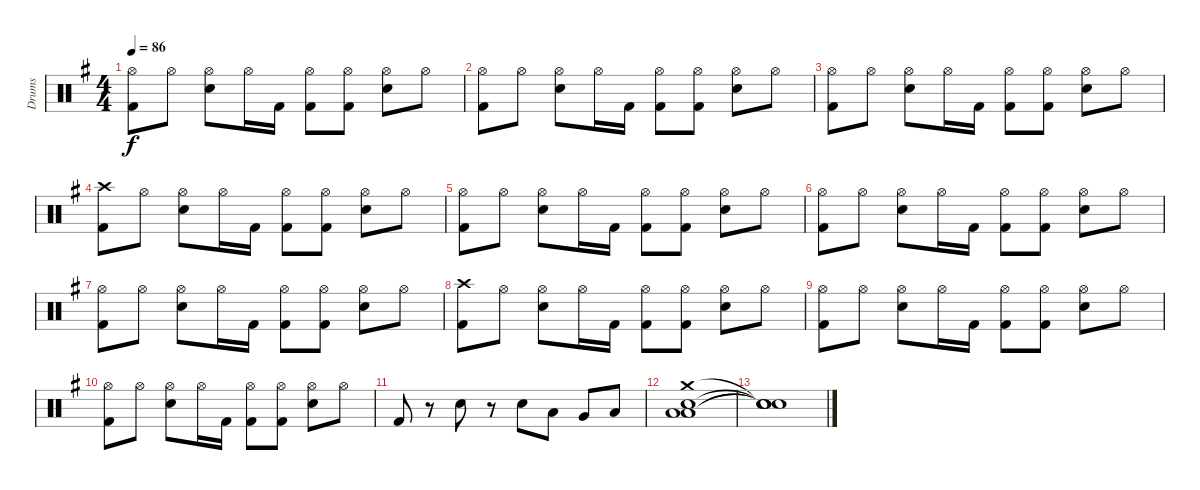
\track ("Drums" "Drums") {instrument percussion}
\staff {score}
\articulation defaults
\ts (4 4)
\tempo 86
\clef neutral
\ks eminor
("Hi-Hat (open)" "Kick (hit) 2").8{dy f} "Hi-Hat (open)".8 ("Hi-Hat (open)" "Snare (hit) 2").8 "Hi-Hat (open)".16 "Kick (hit) 2".16 ("Hi-Hat (open)" "Kick (hit) 2").8 ("Hi-Hat (open)" "Kick (hit) 2").8 ("Hi-Hat (open)" "Snare (hit) 2").8 "Hi-Hat (open)".8 |
("Hi-Hat (open)" "Kick (hit) 2").8 "Hi-Hat (open)".8 ("Hi-Hat (open)" "Snare (hit) 2").8 "Hi-Hat (open)".16 "Kick (hit) 2".16 ("Hi-Hat (open)" "Kick (hit) 2").8 ("Hi-Hat (open)" "Kick (hit) 2").8 ("Hi-Hat (open)" "Snare (hit) 2").8 "Hi-Hat (open)".8 |
("Hi-Hat (open)" "Kick (hit) 2").8 "Hi-Hat (open)".8 ("Hi-Hat (open)" "Snare (hit) 2").8 "Hi-Hat (open)".16 "Kick (hit) 2".16 ("Hi-Hat (open)" "Kick (hit) 2").8 ("Hi-Hat (open)" "Kick (hit) 2").8 ("Hi-Hat (open)" "Snare (hit) 2").8 "Hi-Hat (open)".8 |
("Crash high (hit)" "Kick (hit) 2").8 "Hi-Hat (open)".8 ("Hi-Hat (open)" "Snare (hit) 2").8 "Hi-Hat (open)".16 "Kick (hit) 2".16 ("Hi-Hat (open)" "Kick (hit) 2").8 ("Hi-Hat (open)" "Kick (hit) 2").8 ("Hi-Hat (open)" "Snare (hit) 2").8 "Hi-Hat (open)".8 |
("Hi-Hat (open)" "Kick (hit) 2").8 "Hi-Hat (open)".8 ("Hi-Hat (open)" "Snare (hit) 2").8 "Hi-Hat (open)".16 "Kick (hit) 2".16 ("Hi-Hat (open)" "Kick (hit) 2").8 ("Hi-Hat (open)" "Kick (hit) 2").8 ("Hi-Hat (open)" "Snare (hit) 2").8 "Hi-Hat (open)".8 |
("Hi-Hat (open)" "Kick (hit) 2").8 "Hi-Hat (open)".8 ("Hi-Hat (open)" "Snare (hit) 2").8 "Hi-Hat (open)".16 "Kick (hit) 2".16 ("Hi-Hat (open)" "Kick (hit) 2").8 ("Hi-Hat (open)" "Kick (hit) 2").8 ("Hi-Hat (open)" "Snare (hit) 2").8 "Hi-Hat (open)".8 |
("Hi-Hat (open)" "Kick (hit) 2").8 "Hi-Hat (open)".8 ("Hi-Hat (open)" "Snare (hit) 2").8 "Hi-Hat (open)".16 "Kick (hit) 2".16 ("Hi-Hat (open)" "Kick (hit) 2").8 ("Hi-Hat (open)" "Kick (hit) 2").8 ("Hi-Hat (open)" "Snare (hit) 2").8 "Hi-Hat (open)".8 |
("Crash high (hit)" "Kick (hit) 2").8 "Hi-Hat (open)".8 ("Hi-Hat (open)" "Snare (hit) 2").8 "Hi-Hat (open)".16 "Kick (hit) 2".16 ("Hi-Hat (open)" "Kick (hit) 2").8 ("Hi-Hat (open)" "Kick (hit) 2").8 ("Hi-Hat (open)" "Snare (hit) 2").8 "Hi-Hat (open)".8 |
("Hi-Hat (open)" "Kick (hit) 2").8 "Hi-Hat (open)".8 ("Hi-Hat (open)" "Snare (hit) 2").8 "Hi-Hat (open)".16 "Kick (hit) 2".16 ("Hi-Hat (open)" "Kick (hit) 2").8 ("Hi-Hat (open)" "Kick (hit) 2").8 ("Hi-Hat (open)" "Snare (hit) 2").8 "Hi-Hat (open)".8 |
("Hi-Hat (open)" "Kick (hit) 2").8 "Hi-Hat (open)".8 ("Hi-Hat (open)" "Snare (hit) 2").8 "Hi-Hat (open)".16 "Kick (hit) 2".16 ("Hi-Hat (open)" "Kick (hit) 2").8 ("Hi-Hat (open)" "Kick (hit) 2").8 ("Hi-Hat (open)" "Snare (hit) 2").8 "Hi-Hat (open)".8 |
"Kick (hit) 2".8 r.8 "Snare (hit) 2".8 r.8 "Snare (hit) 2".8 "Low Tom (hit)".8 "Very Low Tom (hit)".8 "Low Floor Tom (hit)".8 |
("Crash medium (hit)" "Snare (hit) 2" "Low Tom (hit)" "Low Floor Tom (hit)").1 |
("Snare (hit)"{t} "Snare (hit)"{t} "Snare (hit)"{t} "Snare (hit)"{t}).1
